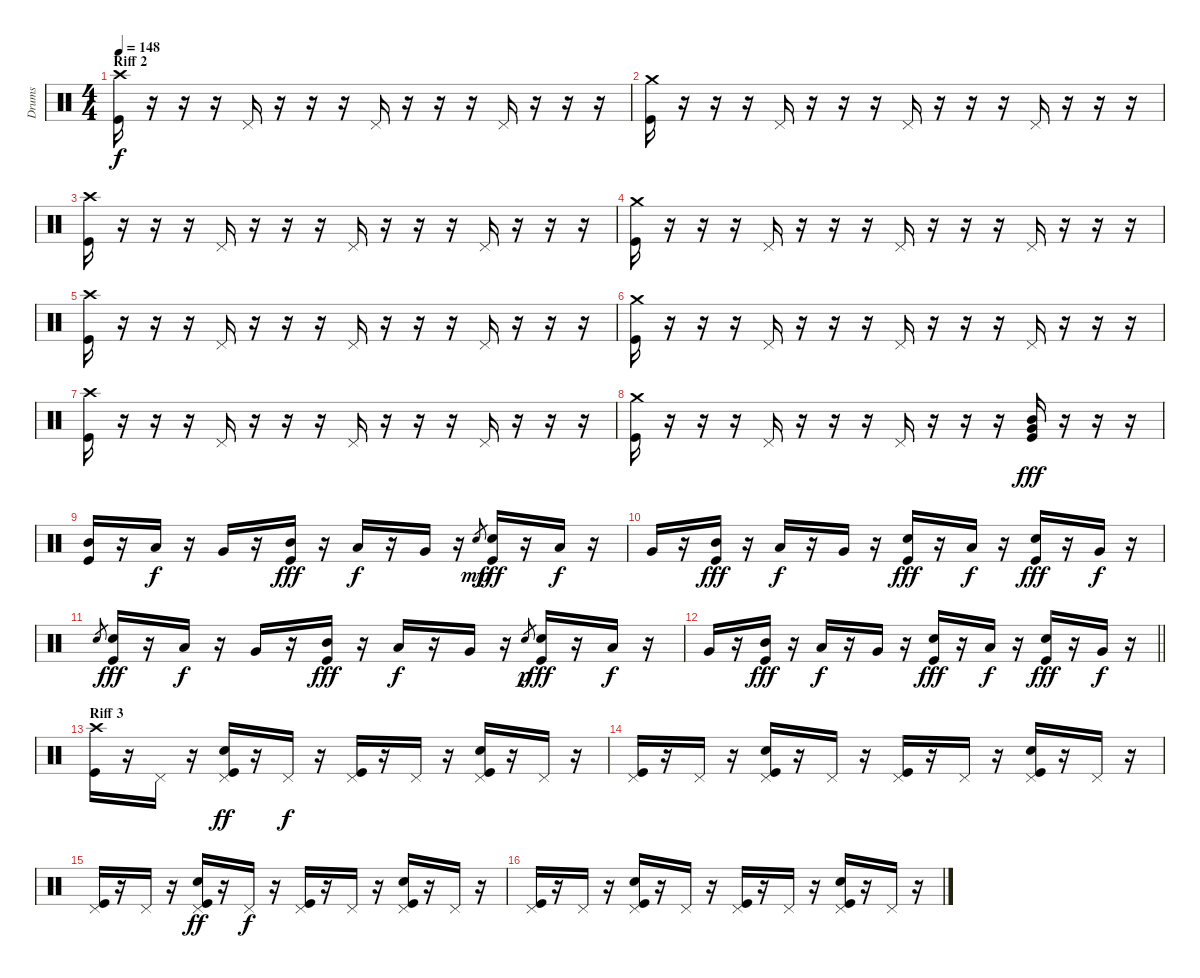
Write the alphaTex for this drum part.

\track ("Drums" "Drums") {instrument percussion}
\staff {score}
\articulation defaults
\ts (4 4)
\section ("" "Riff 2")
\tempo 148
\clef neutral
\ks c
("Crash high (hit)" "Kick (hit)").16{dy f} r.16 r.16 r.16 "Pedal Hi-Hat (hit)".16 r.16 r.16 r.16 "Pedal Hi-Hat (hit)".16 r.16 r.16 r.16 "Pedal Hi-Hat (hit)".16 r.16 r.16 r.16 |
("Crash medium (hit)" "Kick (hit)").16 r.16 r.16 r.16 "Pedal Hi-Hat (hit)".16 r.16 r.16 r.16 "Pedal Hi-Hat (hit)".16 r.16 r.16 r.16 "Pedal Hi-Hat (hit)".16 r.16 r.16 r.16 |
("Crash high (hit)" "Kick (hit)").16 r.16 r.16 r.16 "Pedal Hi-Hat (hit)".16 r.16 r.16 r.16 "Pedal Hi-Hat (hit)".16 r.16 r.16 r.16 "Pedal Hi-Hat (hit)".16 r.16 r.16 r.16 |
("Crash medium (hit)" "Kick (hit)").16 r.16 r.16 r.16 "Pedal Hi-Hat (hit)".16 r.16 r.16 r.16 "Pedal Hi-Hat (hit)".16 r.16 r.16 r.16 "Pedal Hi-Hat (hit)".16 r.16 r.16 r.16 |
("Crash high (hit)" "Kick (hit)").16 r.16 r.16 r.16 "Pedal Hi-Hat (hit)".16 r.16 r.16 r.16 "Pedal Hi-Hat (hit)".16 r.16 r.16 r.16 "Pedal Hi-Hat (hit)".16 r.16 r.16 r.16 |
("Crash medium (hit)" "Kick (hit)").16 r.16 r.16 r.16 "Pedal Hi-Hat (hit)".16 r.16 r.16 r.16 "Pedal Hi-Hat (hit)".16 r.16 r.16 r.16 "Pedal Hi-Hat (hit)".16 r.16 r.16 r.16 |
("Crash high (hit)" "Kick (hit)").16 r.16 r.16 r.16 "Pedal Hi-Hat (hit)".16 r.16 r.16 r.16 "Pedal Hi-Hat (hit)".16 r.16 r.16 r.16 "Pedal Hi-Hat (hit)".16 r.16 r.16 r.16 |
("Crash medium (hit)" "Kick (hit)").16 r.16 r.16 r.16 "Pedal Hi-Hat (hit)".16 r.16 r.16 r.16 "Pedal Hi-Hat (hit)".16 r.16 r.16 r.16 ("Very Low Tom (hit)" "Mid Tom (hit)" "Kick (hit)").16{dy fff} r.16 r.16 r.16 |
("Mid Tom (hit)" "Kick (hit)").16 r.16 "Low Tom (hit)".16{dy f} r.16 "Very Low Tom (hit)".16 r.16 ("Mid Tom (hit)" "Kick (hit)").16{dy fff} r.16 "Low Tom (hit)".16{dy f} r.16 "Very Low Tom (hit)".16 r.16 "Electric Snare (hit)".8{gr dy mp} ("Electric Snare (hit)" "Kick (hit)").16{dy fff} r.16 "Low Tom (hit)".16{dy f} r.16 |
"Very Low Tom (hit)".16 r.16 ("Mid Tom (hit)" "Kick (hit)").16{dy fff} r.16 "Low Tom (hit)".16{dy f} r.16 "Very Low Tom (hit)".16 r.16 ("Electric Snare (hit)" "Kick (hit)").16{dy fff} r.16 "Low Tom (hit)".16{dy f} r.16 ("Electric Snare (hit)" "Kick (hit)").16{dy fff} r.16 "Very Low Tom (hit)".16{dy f} r.16 |
"Electric Snare (hit)".8{gr} ("Electric Snare (hit)" "Kick (hit)").16{dy fff} r.16 "Low Tom (hit)".16{dy f} r.16 "Very Low Tom (hit)".16 r.16 ("Mid Tom (hit)" "Kick (hit)").16{dy fff} r.16 "Low Tom (hit)".16{dy f} r.16 "Very Low Tom (hit)".16 r.16 "Electric Snare (hit)".8{gr dy p} ("Electric Snare (hit)" "Kick (hit)").16{dy fff} r.16 "Low Tom (hit)".16{dy f} r.16 |
\barLineRight lightlight "Very Low Tom (hit)".16
r.16 ("Mid Tom (hit)" "Kick (hit)").16{dy fff} r.16 "Low Tom (hit)".16{dy f} r.16 "Very Low Tom (hit)".16 r.16 ("Electric Snare (hit)" "Kick (hit)").16{dy fff} r.16 "Low Tom (hit)".16{dy f} r.16 ("Electric Snare (hit)" "Kick (hit)").16{dy fff} r.16 "Very Low Tom (hit)".16{dy f} r.16 |
\section ("" "Riff 3")
("Crash high (hit)" "Kick (hit)").16 r.16 "Pedal Hi-Hat (hit)".16 r.16 ("Pedal Hi-Hat (hit)" "Electric Snare (hit)" "Kick (hit)").16{dy ff} r.16 "Pedal Hi-Hat (hit)".16{dy f} r.16 ("Pedal Hi-Hat (hit)" "Kick (hit)").16 r.16 "Pedal Hi-Hat (hit)".16 r.16 ("Pedal Hi-Hat (hit)" "Electric Snare (hit)" "Kick (hit)").16 r.16 "Pedal Hi-Hat (hit)".16 r.16 |
("Pedal Hi-Hat (hit)" "Kick (hit)").16 r.16 "Pedal Hi-Hat (hit)".16 r.16 ("Pedal Hi-Hat (hit)" "Electric Snare (hit)" "Kick (hit)").16 r.16 "Pedal Hi-Hat (hit)".16 r.16 ("Pedal Hi-Hat (hit)" "Kick (hit)").16 r.16 "Pedal Hi-Hat (hit)".16 r.16 ("Pedal Hi-Hat (hit)" "Electric Snare (hit)" "Kick (hit)").16 r.16 "Pedal Hi-Hat (hit)".16 r.16 |
("Pedal Hi-Hat (hit)" "Kick (hit)").16 r.16 "Pedal Hi-Hat (hit)".16 r.16 ("Pedal Hi-Hat (hit)" "Electric Snare (hit)" "Kick (hit)").16{dy ff} r.16 "Pedal Hi-Hat (hit)".16{dy f} r.16 ("Pedal Hi-Hat (hit)" "Kick (hit)").16 r.16 "Pedal Hi-Hat (hit)".16 r.16 ("Pedal Hi-Hat (hit)" "Electric Snare (hit)" "Kick (hit)").16 r.16 "Pedal Hi-Hat (hit)".16 r.16 |
("Pedal Hi-Hat (hit)" "Kick (hit)").16 r.16 "Pedal Hi-Hat (hit)".16 r.16 ("Pedal Hi-Hat (hit)" "Electric Snare (hit)" "Kick (hit)").16 r.16 "Pedal Hi-Hat (hit)".16 r.16 ("Pedal Hi-Hat (hit)" "Kick (hit)").16 r.16 "Pedal Hi-Hat (hit)".16 r.16 ("Pedal Hi-Hat (hit)" "Electric Snare (hit)" "Kick (hit)").16 r.16 "Pedal Hi-Hat (hit)".16 r.16
